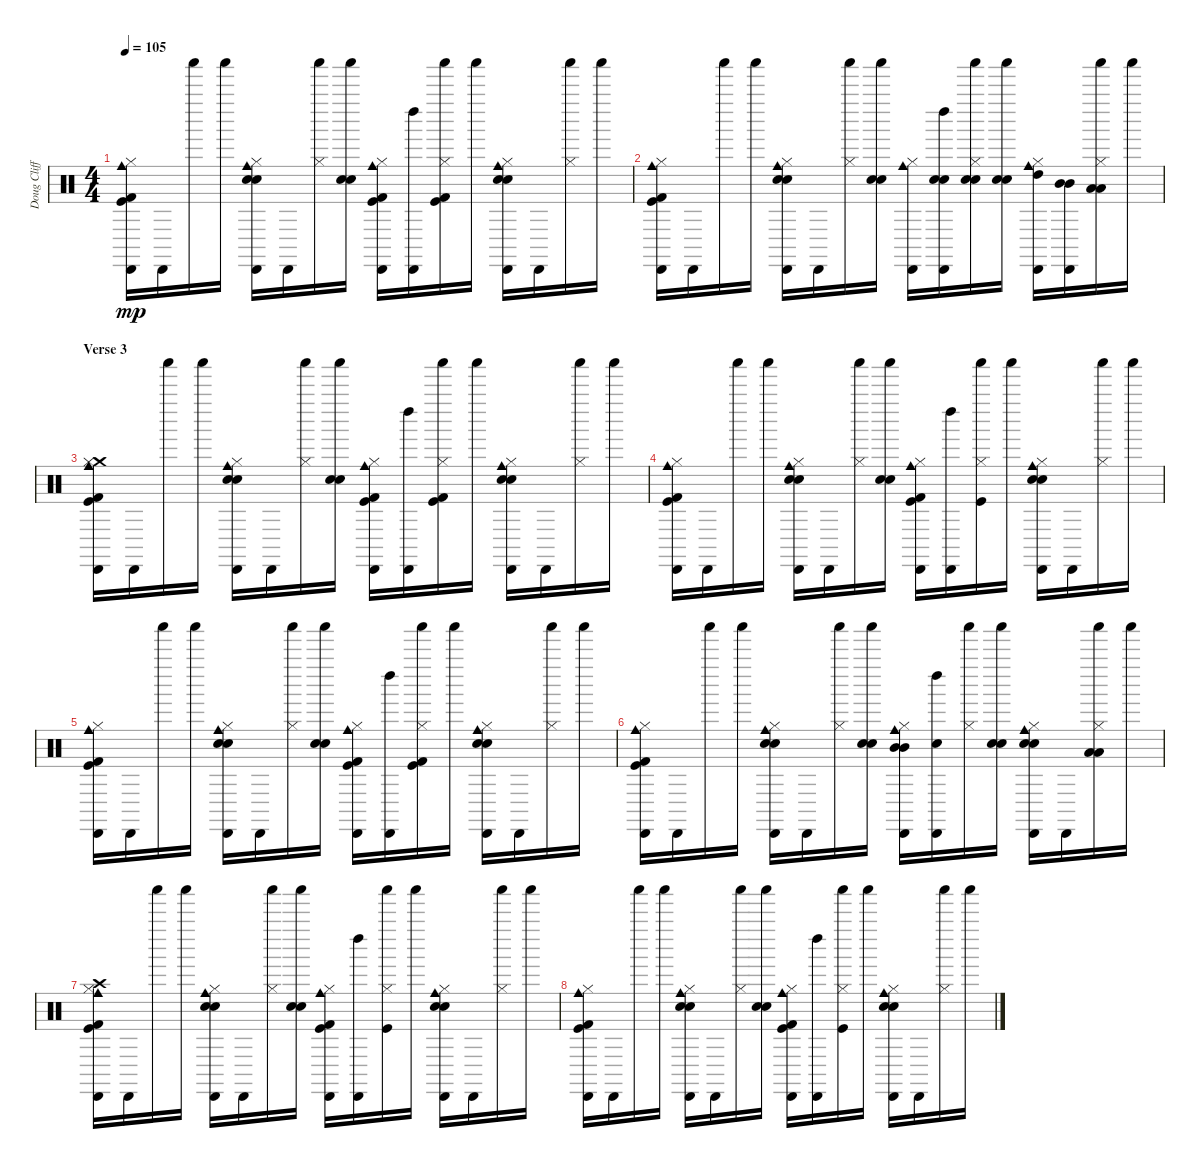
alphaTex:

\track ("Doug Clifford" "Doug Cliff") {instrument percussion}
\staff {score}
\articulation defaults
\ts (4 4)
\tempo 105
\clef neutral
\ks c
("Kick (hit) 2" "Cowbell medium (hit)" "Cabasa (hit)" "Kick (hit)" "Hi-Hat (closed)").16{dy mp} "Cabasa (hit)".16 "Shaker (hit)".16 "Shaker (hit)".16 ("Snare (hit) 2" "Cowbell medium (hit)" "Electric Snare (hit)" "Cabasa (hit)" "Hi-Hat (closed)").16 "Cabasa (hit)".16 ("Hi-Hat (closed)" "Shaker (hit)").16 ("Snare (hit) 2" "Shaker (hit)" "Electric Snare (hit)").16 ("Kick (hit) 2" "Cabasa (hit)" "Kick (hit)" "Hi-Hat (closed)" "Cowbell medium (hit)").16 ("Left Maraca (hit)" "Cabasa (hit)").16 ("Kick (hit) 2" "Shaker (hit)" "Hi-Hat (closed)" "Kick (hit)").16 "Shaker (hit)".16 ("Snare (hit) 2" "Cabasa (hit)" "Cowbell medium (hit)" "Electric Snare (hit)" "Hi-Hat (closed)").16 "Cabasa (hit)".16 ("Hi-Hat (closed)" "Shaker (hit)").16 "Shaker (hit)".16 |
("Kick (hit) 2" "Cabasa (hit)" "Kick (hit)" "Cowbell medium (hit)" "Hi-Hat (closed)").16 "Cabasa (hit)".16 "Shaker (hit)".16 "Shaker (hit)".16 ("Snare (hit) 2" "Electric Snare (hit)" "Cabasa (hit)" "Cowbell medium (hit)" "Hi-Hat (closed)").16 "Cabasa (hit)".16 ("Shaker (hit)" "Hi-Hat (closed)").16 ("Snare (hit) 2" "Shaker (hit)" "Electric Snare (hit)").16 ("Hi-Hat (closed)" "Cabasa (hit)" "Cowbell medium (hit)").16 ("Snare (hit) 2" "Left Maraca (hit)" "Cabasa (hit)" "Electric Snare (hit)").16 ("Snare (hit) 2" "Hi-Hat (closed)" "Shaker (hit)" "Electric Snare (hit)").16 ("Snare (hit) 2" "Electric Snare (hit)" "Shaker (hit)").16 ("Cabasa (hit)" "Cowbell medium (hit)" "High Tom (hit)" "Hi-Hat (closed)").16 ("Mid Tom (hit)" "Mid Tom (hit)" "Cabasa (hit)").16 ("Low Tom (hit)" "Shaker (hit)" "Low Tom (hit)" "Hi-Hat (closed)").16 "Shaker (hit)".16 |
\section ("" "Verse 3")
("Kick (hit) 2" "Crash medium (hit)" "Cowbell medium (hit)" "Cabasa (hit)" "Kick (hit)" "Hi-Hat (closed)").16 "Cabasa (hit)".16 "Shaker (hit)".16 "Shaker (hit)".16 ("Snare (hit) 2" "Cabasa (hit)" "Electric Snare (hit)" "Cowbell medium (hit)" "Hi-Hat (closed)").16 "Cabasa (hit)".16 ("Shaker (hit)" "Hi-Hat (closed)").16 ("Snare (hit) 2" "Shaker (hit)" "Electric Snare (hit)").16 ("Kick (hit) 2" "Cabasa (hit)" "Hi-Hat (closed)" "Kick (hit)" "Cowbell medium (hit)").16 ("Left Maraca (hit)" "Cabasa (hit)").16 ("Kick (hit) 2" "Shaker (hit)" "Kick (hit)" "Hi-Hat (closed)").16 "Shaker (hit)".16 ("Snare (hit) 2" "Electric Snare (hit)" "Cowbell medium (hit)" "Cabasa (hit)" "Hi-Hat (closed)").16 "Cabasa (hit)".16 ("Shaker (hit)" "Hi-Hat (closed)").16 "Shaker (hit)".16 |
("Kick (hit) 2" "Cowbell medium (hit)" "Cabasa (hit)" "Kick (hit)" "Hi-Hat (closed)").16 "Cabasa (hit)".16 "Shaker (hit)".16 "Shaker (hit)".16 ("Snare (hit) 2" "Cowbell medium (hit)" "Electric Snare (hit)" "Cabasa (hit)" "Hi-Hat (closed)").16 "Cabasa (hit)".16 ("Hi-Hat (closed)" "Shaker (hit)").16 ("Snare (hit) 2" "Electric Snare (hit)" "Shaker (hit)").16 ("Kick (hit) 2" "Hi-Hat (closed)" "Kick (hit)" "Cowbell medium (hit)" "Cabasa (hit)").16 ("Left Maraca (hit)" "Cabasa (hit)").16 ("Shaker (hit)" "Kick (hit)" "Hi-Hat (closed)").16 "Shaker (hit)".16 ("Snare (hit) 2" "Cabasa (hit)" "Cowbell medium (hit)" "Electric Snare (hit)" "Hi-Hat (closed)").16 "Cabasa (hit)".16 ("Hi-Hat (closed)" "Shaker (hit)").16 "Shaker (hit)".16 |
("Kick (hit) 2" "Kick (hit)" "Cowbell medium (hit)" "Cabasa (hit)" "Hi-Hat (closed)").16 "Cabasa (hit)".16 "Shaker (hit)".16 "Shaker (hit)".16 ("Snare (hit) 2" "Cabasa (hit)" "Electric Snare (hit)" "Cowbell medium (hit)" "Hi-Hat (closed)").16 "Cabasa (hit)".16 ("Shaker (hit)" "Hi-Hat (closed)").16 ("Snare (hit) 2" "Electric Snare (hit)" "Shaker (hit)").16 ("Kick (hit) 2" "Cabasa (hit)" "Cowbell medium (hit)" "Hi-Hat (closed)" "Kick (hit)").16 ("Left Maraca (hit)" "Cabasa (hit)").16 ("Kick (hit) 2" "Shaker (hit)" "Kick (hit)" "Hi-Hat (closed)").16 "Shaker (hit)".16 ("Snare (hit) 2" "Cowbell medium (hit)" "Electric Snare (hit)" "Cabasa (hit)" "Hi-Hat (closed)").16 "Cabasa (hit)".16 ("Shaker (hit)" "Hi-Hat (closed)").16 "Shaker (hit)".16 |
("Kick (hit) 2" "Cowbell medium (hit)" "Kick (hit)" "Cabasa (hit)" "Hi-Hat (closed)").16 "Cabasa (hit)".16 "Shaker (hit)".16 "Shaker (hit)".16 ("Snare (hit) 2" "Cabasa (hit)" "Electric Snare (hit)" "Cowbell medium (hit)" "Hi-Hat (closed)").16 "Cabasa (hit)".16 ("Shaker (hit)" "Hi-Hat (closed)").16 ("Snare (hit) 2" "Electric Snare (hit)" "Shaker (hit)").16 ("Mid Tom (hit)" "Mid Tom (hit)" "Hi-Hat (closed)" "Cowbell medium (hit)" "Cabasa (hit)").16 ("Left Maraca (hit)" "Cabasa (hit)" "Electric Snare (hit)").16 ("Shaker (hit)" "Hi-Hat (closed)").16 ("Snare (hit) 2" "Electric Snare (hit)" "Shaker (hit)").16 ("Snare (hit) 2" "Cowbell medium (hit)" "Cabasa (hit)" "Electric Snare (hit)" "Hi-Hat (closed)").16 "Cabasa (hit)".16 ("Low Tom (hit)" "Shaker (hit)" "Hi-Hat (closed)" "Low Tom (hit)").16 "Shaker (hit)".16 |
("Kick (hit) 2" "Crash high (hit)" "Cabasa (hit)" "Cowbell medium (hit)" "Kick (hit)" "Hi-Hat (closed)").16 "Cabasa (hit)".16 "Shaker (hit)".16 "Shaker (hit)".16 ("Snare (hit) 2" "Cabasa (hit)" "Electric Snare (hit)" "Cowbell medium (hit)" "Hi-Hat (closed)").16 "Cabasa (hit)".16 ("Hi-Hat (closed)" "Shaker (hit)").16 ("Snare (hit) 2" "Electric Snare (hit)" "Shaker (hit)").16 ("Kick (hit) 2" "Kick (hit)" "Cowbell medium (hit)" "Hi-Hat (closed)" "Cabasa (hit)").16 ("Left Maraca (hit)" "Cabasa (hit)").16 ("Kick (hit)" "Hi-Hat (closed)" "Shaker (hit)").16 "Shaker (hit)".16 ("Snare (hit) 2" "Cabasa (hit)" "Cowbell medium (hit)" "Electric Snare (hit)" "Hi-Hat (closed)").16 "Cabasa (hit)".16 ("Shaker (hit)" "Hi-Hat (closed)").16 "Shaker (hit)".16 |
("Kick (hit) 2" "Kick (hit)" "Cowbell medium (hit)" "Cabasa (hit)" "Hi-Hat (closed)").16 "Cabasa (hit)".16 "Shaker (hit)".16 "Shaker (hit)".16 ("Snare (hit) 2" "Electric Snare (hit)" "Cowbell medium (hit)" "Cabasa (hit)" "Hi-Hat (closed)").16 "Cabasa (hit)".16 ("Shaker (hit)" "Hi-Hat (closed)").16 ("Snare (hit) 2" "Shaker (hit)" "Electric Snare (hit)").16 ("Kick (hit) 2" "Hi-Hat (closed)" "Cabasa (hit)" "Kick (hit)" "Cowbell medium (hit)").16 ("Left Maraca (hit)" "Cabasa (hit)").16 ("Hi-Hat (closed)" "Shaker (hit)" "Kick (hit)").16 "Shaker (hit)".16 ("Snare (hit) 2" "Cabasa (hit)" "Electric Snare (hit)" "Cowbell medium (hit)" "Hi-Hat (closed)").16 "Cabasa (hit)".16 ("Shaker (hit)" "Hi-Hat (closed)").16 "Shaker (hit)".16
